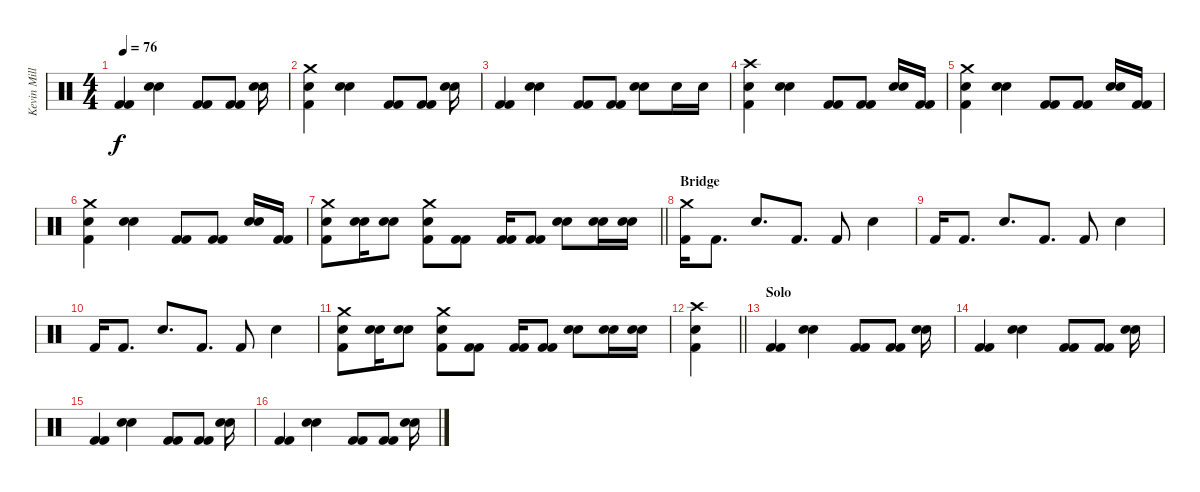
\track ("Kevin Miller (Drums)" "Kevin Mill") {instrument percussion}
\staff {score}
\articulation defaults
\ts (4 4)
\tempo 76
\clef neutral
\ks c
("Kick (hit) 2" "Kick (hit) 2").4{dy f} ("Electric Snare (hit)" "Electric Snare (hit)").4 ("Kick (hit) 2" "Kick (hit) 2").8 ("Kick (hit) 2" "Kick (hit) 2").8 ("Electric Snare (hit)" "Electric Snare (hit)").16 |
("Crash medium (hit)" "Electric Snare (hit)" "Kick (hit) 2").4 ("Electric Snare (hit)" "Electric Snare (hit)").4 ("Kick (hit) 2" "Kick (hit) 2").8 ("Kick (hit) 2" "Kick (hit) 2").8 ("Electric Snare (hit)" "Electric Snare (hit)").16 |
("Kick (hit) 2" "Kick (hit) 2").4 ("Electric Snare (hit)" "Electric Snare (hit)").4 ("Kick (hit) 2" "Kick (hit) 2").8 ("Kick (hit) 2" "Kick (hit) 2").8 ("Electric Snare (hit)" "Electric Snare (hit)").8 "Electric Snare (hit)".16 "Electric Snare (hit)".16 |
("Crash high (hit)" "Electric Snare (hit)" "Kick (hit) 2").4 ("Electric Snare (hit)" "Electric Snare (hit)").4 ("Kick (hit) 2" "Kick (hit) 2").8 ("Kick (hit) 2" "Kick (hit) 2").8 ("Electric Snare (hit)" "Electric Snare (hit)").16 ("Kick (hit) 2" "Kick (hit) 2").16 |
("Crash medium (hit)" "Electric Snare (hit)" "Kick (hit) 2").4 ("Electric Snare (hit)" "Electric Snare (hit)").4 ("Kick (hit) 2" "Kick (hit) 2").8 ("Kick (hit) 2" "Kick (hit) 2").8 ("Electric Snare (hit)" "Electric Snare (hit)").16 ("Kick (hit) 2" "Kick (hit) 2").16 |
("Crash medium (hit)" "Electric Snare (hit)" "Kick (hit) 2").4 ("Electric Snare (hit)" "Electric Snare (hit)").4 ("Kick (hit) 2" "Kick (hit) 2").8 ("Kick (hit) 2" "Kick (hit) 2").8 ("Electric Snare (hit)" "Electric Snare (hit)").16 ("Kick (hit) 2" "Kick (hit) 2").16 |
\barLineRight lightlight
("Crash medium (hit)" "Electric Snare (hit)" "Kick (hit) 2").8 ("Electric Snare (hit)" "Electric Snare (hit)").16 ("Electric Snare (hit)" "Electric Snare (hit)").8 ("Crash medium (hit)" "Electric Snare (hit)" "Kick (hit) 2").8 ("Kick (hit) 2" "Kick (hit) 2").8 ("Kick (hit) 2" "Kick (hit) 2").16 ("Kick (hit) 2" "Kick (hit) 2").8 ("Snare (hit) 2" "Snare (hit) 2").8 ("Electric Snare (hit)" "Electric Snare (hit)").16 ("Electric Snare (hit)" "Electric Snare (hit)").16 |
\section ("" "Bridge")
("Crash medium (hit)" "Kick (hit) 2").16 "Kick (hit) 2".8{d} "Electric Snare (hit)".8{d} "Kick (hit) 2".8{d} "Kick (hit) 2".8 "Electric Snare (hit)".4 |
"Kick (hit) 2".16 "Kick (hit) 2".8{d} "Electric Snare (hit)".8{d} "Kick (hit) 2".8{d} "Kick (hit) 2".8 "Electric Snare (hit)".4 |
"Kick (hit) 2".16 "Kick (hit) 2".8{d} "Electric Snare (hit)".8{d} "Kick (hit) 2".8{d} "Kick (hit) 2".8 "Electric Snare (hit)".4 |
("Crash medium (hit)" "Electric Snare (hit)" "Kick (hit) 2").8 ("Electric Snare (hit)" "Electric Snare (hit)").16 ("Electric Snare (hit)" "Electric Snare (hit)").8 ("Crash medium (hit)" "Electric Snare (hit)" "Kick (hit) 2").8 ("Kick (hit) 2" "Kick (hit) 2").8 ("Kick (hit) 2" "Kick (hit) 2").16 ("Kick (hit) 2" "Kick (hit) 2").8 ("Snare (hit) 2" "Snare (hit) 2").8 ("Electric Snare (hit)" "Electric Snare (hit)").16 ("Electric Snare (hit)" "Electric Snare (hit)").16 |
\barLineRight lightlight
("Crash high (hit)" "Electric Snare (hit)" "Kick (hit) 2").4 |
\section ("" "Solo")
("Kick (hit) 2" "Kick (hit) 2").4 ("Electric Snare (hit)" "Electric Snare (hit)").4 ("Kick (hit) 2" "Kick (hit) 2").8 ("Kick (hit) 2" "Kick (hit) 2").8 ("Electric Snare (hit)" "Electric Snare (hit)").16 |
("Kick (hit) 2" "Kick (hit) 2").4 ("Electric Snare (hit)" "Electric Snare (hit)").4 ("Kick (hit) 2" "Kick (hit) 2").8 ("Kick (hit) 2" "Kick (hit) 2").8 ("Electric Snare (hit)" "Electric Snare (hit)").16 |
("Kick (hit) 2" "Kick (hit) 2").4 ("Electric Snare (hit)" "Electric Snare (hit)").4 ("Kick (hit) 2" "Kick (hit) 2").8 ("Kick (hit) 2" "Kick (hit) 2").8 ("Electric Snare (hit)" "Electric Snare (hit)").16 |
("Kick (hit) 2" "Kick (hit) 2").4 ("Electric Snare (hit)" "Electric Snare (hit)").4 ("Kick (hit) 2" "Kick (hit) 2").8 ("Kick (hit) 2" "Kick (hit) 2").8 ("Electric Snare (hit)" "Electric Snare (hit)").16
